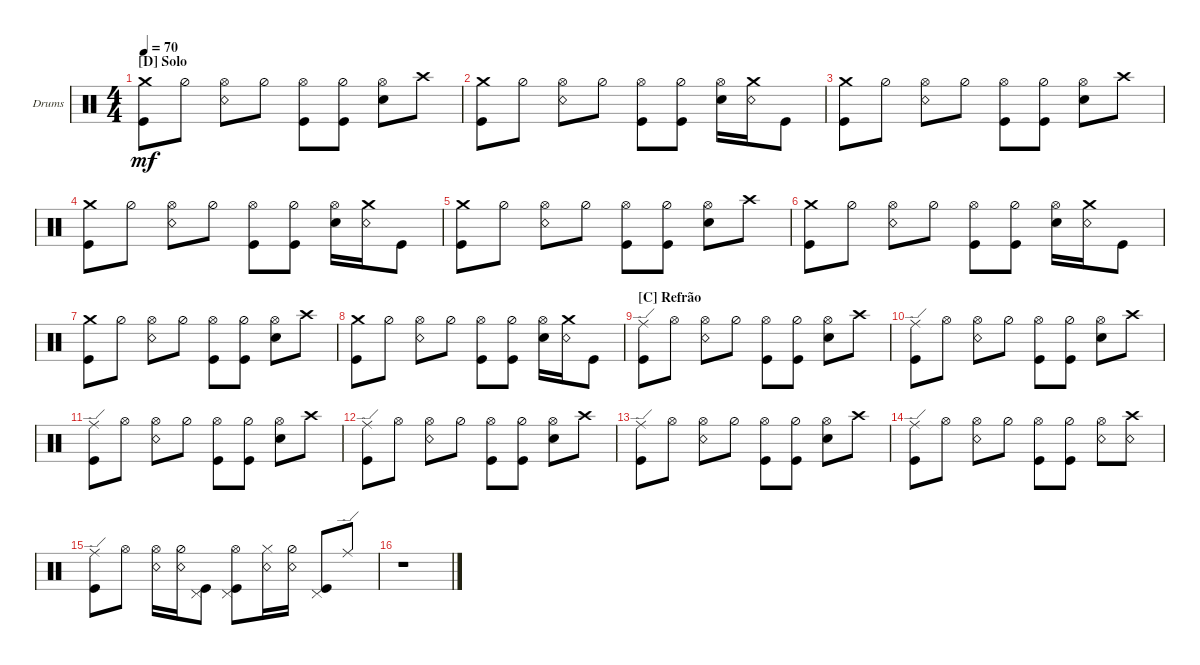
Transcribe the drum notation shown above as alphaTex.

\defaultSystemsLayout 4
\bracketExtendMode groupsimilarinstruments
\firstSystemTrackNameOrientation horizontal
\otherSystemsTrackNameOrientation horizontal
\track ("Drum" "Drums") {multiBarRest instrument percussion}
\staff {score}
\articulation defaults
\ts (4 4)
\section ("D" "Solo")
\tempo 70
\clef neutral
\ks c
("Crash medium (hit)" "Kick (hit)").8{dy mf} "Hi-Hat (half)".8 ("Hi-Hat (open)" "Snare (rim shot)").8 "Hi-Hat (half)".8 ("Hi-Hat (open)" "Kick (hit)").8 ("Hi-Hat (half)" "Kick (hit)").8 ("Hi-Hat (open)" "Snare (hit) 2").8 "Crash high (hit)".8 |
("Crash medium (hit)" "Kick (hit)").8 "Hi-Hat (half)".8 ("Hi-Hat (open)" "Snare (rim shot)").8 "Hi-Hat (half)".8 ("Hi-Hat (open)" "Kick (hit)").8 ("Hi-Hat (half)" "Kick (hit)").8 ("Hi-Hat (open)" "Snare (hit) 2").16 ("Crash medium (hit)" "Snare (rim shot)").16 "Kick (hit)".8 |
("Crash medium (hit)" "Kick (hit)").8 "Hi-Hat (half)".8 ("Hi-Hat (open)" "Snare (rim shot)").8 "Hi-Hat (half)".8 ("Hi-Hat (open)" "Kick (hit)").8 ("Hi-Hat (half)" "Kick (hit)").8 ("Hi-Hat (open)" "Snare (hit) 2").8 "Crash high (hit)".8 |
("Crash medium (hit)" "Kick (hit)").8 "Hi-Hat (half)".8 ("Hi-Hat (open)" "Snare (rim shot)").8 "Hi-Hat (half)".8 ("Hi-Hat (open)" "Kick (hit)").8 ("Hi-Hat (half)" "Kick (hit)").8 ("Hi-Hat (open)" "Snare (hit) 2").16 ("Crash medium (hit)" "Snare (rim shot)").16 "Kick (hit)".8 |
("Crash medium (hit)" "Kick (hit)").8 "Hi-Hat (half)".8 ("Hi-Hat (open)" "Snare (rim shot)").8 "Hi-Hat (half)".8 ("Hi-Hat (open)" "Kick (hit)").8 ("Hi-Hat (half)" "Kick (hit)").8 ("Hi-Hat (open)" "Snare (hit) 2").8 "Crash high (hit)".8 |
("Crash medium (hit)" "Kick (hit)").8 "Hi-Hat (half)".8 ("Hi-Hat (open)" "Snare (rim shot)").8 "Hi-Hat (half)".8 ("Hi-Hat (open)" "Kick (hit)").8 ("Hi-Hat (half)" "Kick (hit)").8 ("Hi-Hat (open)" "Snare (hit) 2").16 ("Crash medium (hit)" "Snare (rim shot)").16 "Kick (hit)".8 |
("Crash medium (hit)" "Kick (hit)").8 "Hi-Hat (half)".8 ("Hi-Hat (open)" "Snare (rim shot)").8 "Hi-Hat (half)".8 ("Hi-Hat (open)" "Kick (hit)").8 ("Hi-Hat (half)" "Kick (hit)").8 ("Hi-Hat (open)" "Snare (hit) 2").8 "Crash high (hit)".8 |
("Crash medium (hit)" "Kick (hit)").8 "Hi-Hat (half)".8 ("Hi-Hat (open)" "Snare (rim shot)").8 "Hi-Hat (half)".8 ("Hi-Hat (open)" "Kick (hit)").8 ("Hi-Hat (half)" "Kick (hit)").8 ("Hi-Hat (open)" "Snare (hit) 2").16 ("Crash medium (hit)" "Snare (rim shot)").16 "Kick (hit)".8 |
\section ("C" "Refrão")
("Kick (hit)" "Ride (edge)").8 "Hi-Hat (open)".8 ("Hi-Hat (open)" "Snare (rim shot)").8 "Hi-Hat (half)".8 ("Hi-Hat (open)" "Kick (hit)").8 ("Hi-Hat (half)" "Kick (hit)").8 ("Hi-Hat (open)" "Snare (hit) 2").8 "Crash high (hit)".8 |
("Kick (hit)" "Ride (edge)").8 "Hi-Hat (open)".8 ("Hi-Hat (open)" "Snare (rim shot)").8 "Hi-Hat (half)".8 ("Hi-Hat (open)" "Kick (hit)").8 ("Hi-Hat (half)" "Kick (hit)").8 ("Hi-Hat (open)" "Snare (hit) 2").8 "Crash high (hit)".8 |
("Kick (hit)" "Ride (edge)").8 "Hi-Hat (open)".8 ("Hi-Hat (open)" "Snare (rim shot)").8 "Hi-Hat (half)".8 ("Hi-Hat (open)" "Kick (hit)").8 ("Hi-Hat (half)" "Kick (hit)").8 ("Hi-Hat (open)" "Snare (hit) 2").8 "Crash high (hit)".8 |
("Kick (hit)" "Ride (edge)").8 "Hi-Hat (open)".8 ("Hi-Hat (open)" "Snare (rim shot)").8 "Hi-Hat (half)".8 ("Hi-Hat (open)" "Kick (hit)").8 ("Hi-Hat (half)" "Kick (hit)").8 ("Hi-Hat (open)" "Snare (hit) 2").8 "Crash high (hit)".8 |
("Kick (hit)" "Ride (edge)").8 "Hi-Hat (open)".8 ("Hi-Hat (open)" "Snare (rim shot)").8 "Hi-Hat (half)".8 ("Hi-Hat (open)" "Kick (hit)").8 ("Hi-Hat (half)" "Kick (hit)").8 ("Hi-Hat (open)" "Snare (hit) 2").8 "Crash high (hit)".8 |
("Kick (hit)" "Ride (edge)").8 "Hi-Hat (open)".8 ("Hi-Hat (open)" "Snare (rim shot)").8 "Hi-Hat (half)".8 ("Hi-Hat (open)" "Kick (hit)").8 ("Hi-Hat (half)" "Kick (hit)").8 ("Hi-Hat (open)" "Snare (rim shot)").8 ("Crash high (hit)" "Snare (rim shot)").8 |
("Kick (hit)" "Ride (edge)").8 "Hi-Hat (open)".8 ("Snare (rim shot)" "Hi-Hat (open)").16 ("Snare (rim shot)" "Hi-Hat (half)").16 ("Kick (hit)" "Pedal Hi-Hat (hit)").8 ("Kick (hit)" "Pedal Hi-Hat (hit)" "Hi-Hat (open)").8 ("Snare (rim shot)" "Hi-Hat (closed)").16 ("Snare (rim shot)" "Hi-Hat (half)").16 ("Kick (hit)" "Pedal Hi-Hat (hit)").8 "Ride (edge)".8 |
r.1
